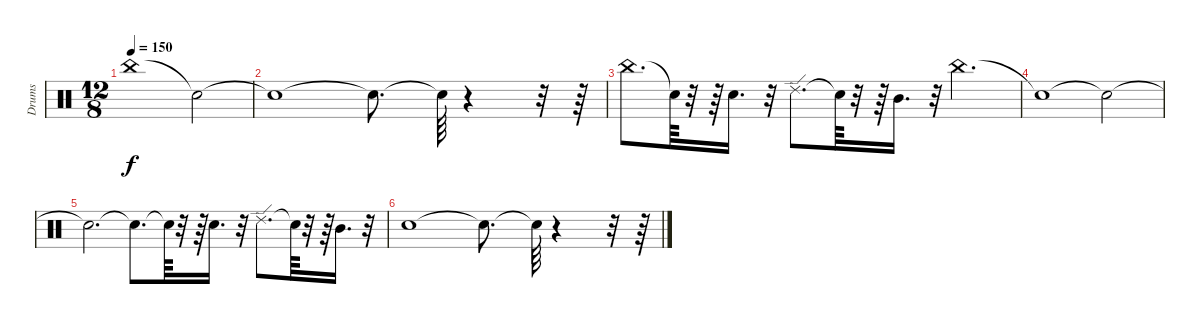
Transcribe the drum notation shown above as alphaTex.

\track ("Drums" "Drums") {instrument percussion}
\staff {score}
\articulation defaults
\ts (12 8)
\tempo 150
\clef neutral
\ks c "China (hit)".1{dy f} "Snare (hit)"{t}.2
|
"Snare (hit)"{t}.1 "Snare (hit)"{t}.8{d} "Snare (hit)"{t}.64 r.4 r.32 r.64 |
"China (hit)".8{d} "Snare (hit)"{t}.64 r.32 r.64 "Electric Snare (hit)".16{d} r.32 "Ride (edge) 2".8{d} "Snare (hit)"{t}.64 r.32 r.64 "Mid Tom (hit)".16{d} r.32 "China (hit)".2{d} |
"Snare (hit)"{t}.1 "Snare (hit)"{t}.2 |
"Snare (hit)"{t}.2{d} "Snare (hit)"{t}.8{d} "Snare (hit)"{t}.64 r.32 r.64 "Electric Snare (hit)".16{d} r.32 "Ride (edge) 2".8{d} "Snare (hit)"{t}.64 r.32 r.64 "Mid Tom (hit)".16{d} r.32 |
"Electric Snare (hit)".1 "Snare (hit)"{t}.8{d} "Snare (hit)"{t}.64 r.4 r.32 r.64
